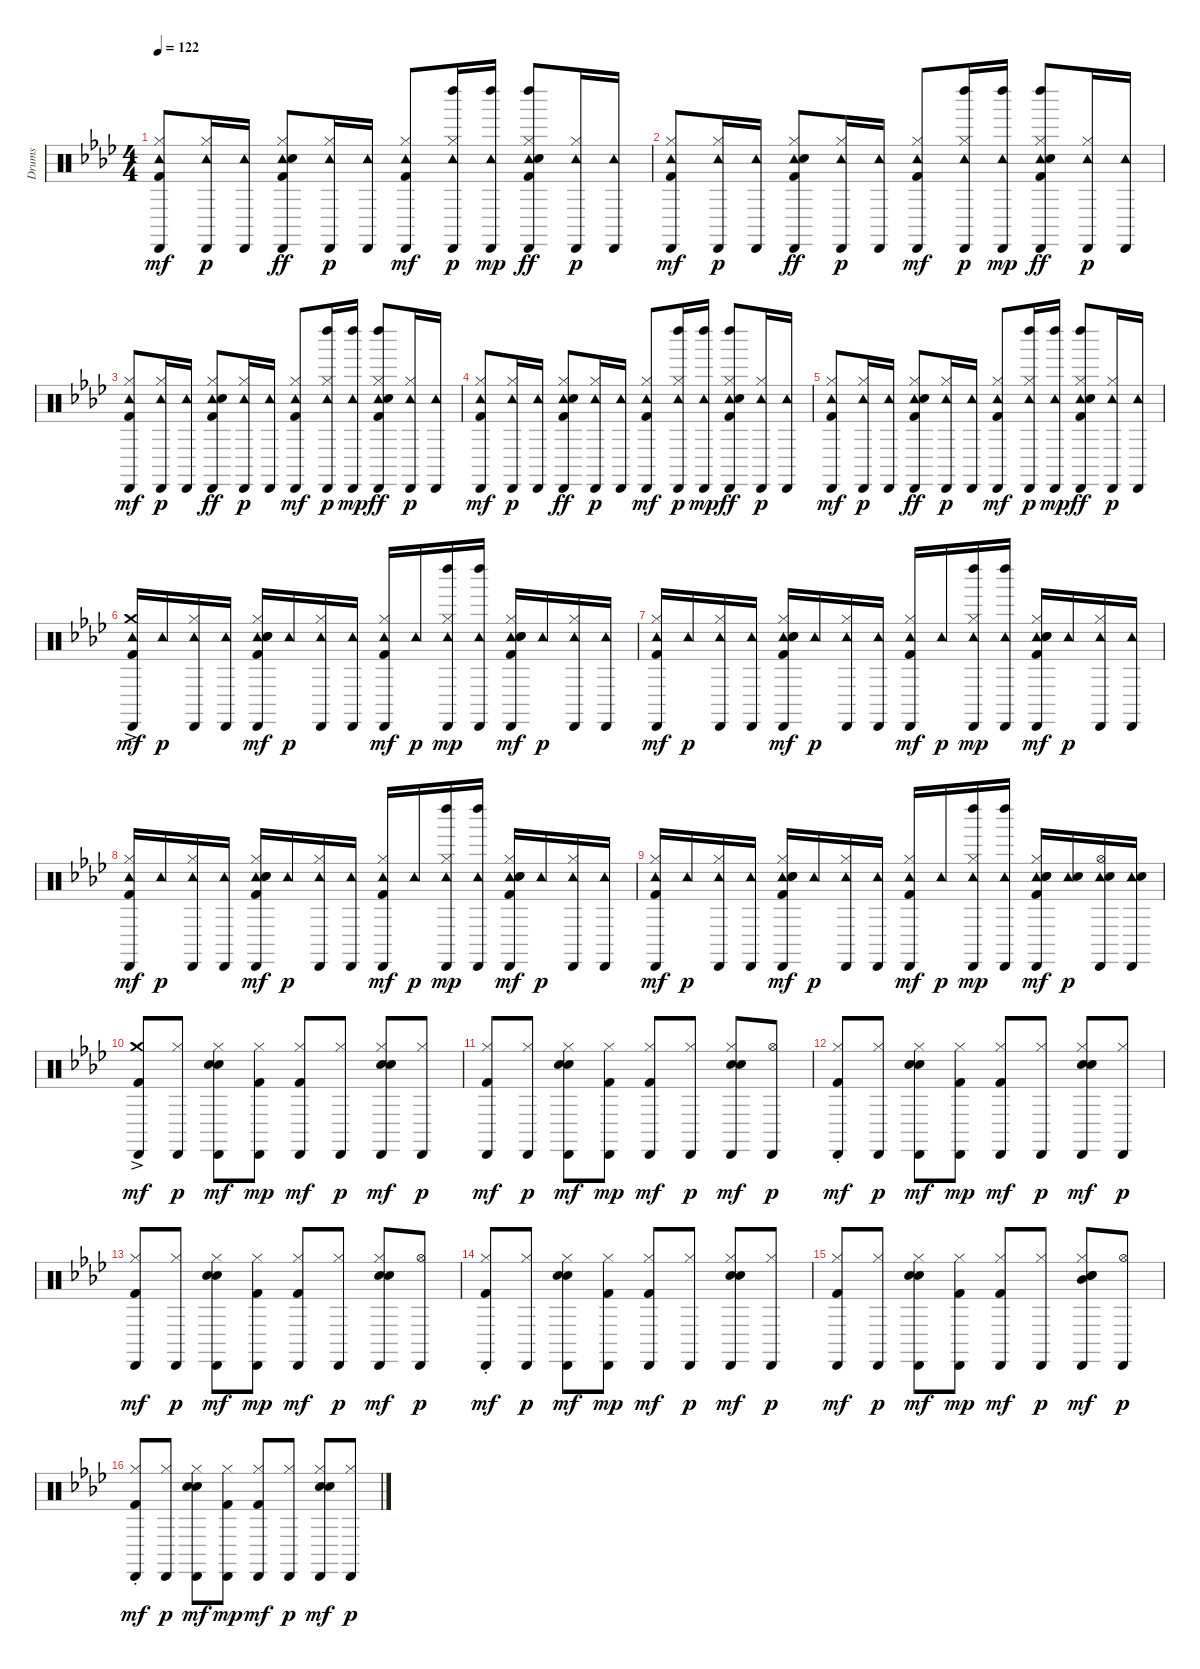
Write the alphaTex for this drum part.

\track ("Drums" "Drums") {instrument percussion}
\staff {score}
\articulation defaults
\ts (4 4)
\tempo 122
\clef neutral
\ks ab
("Hi-Hat (closed)" "Cabasa (hit)" "Tambourine (hit)" "Kick (hit) 2").8{dy mf} ("Hi-Hat (closed)" "Cabasa (hit)" "Tambourine (hit)").16{dy p} ("Cabasa (hit)" "Tambourine (hit)").16 ("Hi-Hat (closed)" "Cabasa (hit)" "Tambourine (hit)" "Hand Clap (hit)" "Kick (hit) 2").8{dy ff} ("Hi-Hat (closed)" "Cabasa (hit)" "Tambourine (hit)").16{dy p} ("Cabasa (hit)" "Tambourine (hit)").16 ("Hi-Hat (closed)" "Cabasa (hit)" "Tambourine (hit)" "Kick (hit) 2").8{dy mf} ("Hi-Hat (closed)" "Cabasa (hit)" "Tambourine (hit)" "Left Maraca (hit)").16{dy p} ("Cabasa (hit)" "Tambourine (hit)" "Left Maraca (hit)").16{dy mp} ("Hi-Hat (closed)" "Cabasa (hit)" "Tambourine (hit)" "Left Maraca (hit)" "Hand Clap (hit)" "Kick (hit) 2").8{dy ff} ("Hi-Hat (closed)" "Cabasa (hit)" "Tambourine (hit)").16{dy p} ("Cabasa (hit)" "Tambourine (hit)").16 |
("Hi-Hat (closed)" "Cabasa (hit)" "Tambourine (hit)" "Kick (hit) 2").8{dy mf} ("Hi-Hat (closed)" "Cabasa (hit)" "Tambourine (hit)").16{dy p} ("Cabasa (hit)" "Tambourine (hit)").16 ("Hi-Hat (closed)" "Cabasa (hit)" "Tambourine (hit)" "Hand Clap (hit)" "Kick (hit) 2").8{dy ff} ("Hi-Hat (closed)" "Cabasa (hit)" "Tambourine (hit)").16{dy p} ("Cabasa (hit)" "Tambourine (hit)").16 ("Hi-Hat (closed)" "Cabasa (hit)" "Tambourine (hit)" "Kick (hit) 2").8{dy mf} ("Hi-Hat (closed)" "Cabasa (hit)" "Tambourine (hit)" "Left Maraca (hit)").16{dy p} ("Cabasa (hit)" "Tambourine (hit)" "Left Maraca (hit)").16{dy mp} ("Hi-Hat (closed)" "Cabasa (hit)" "Tambourine (hit)" "Left Maraca (hit)" "Hand Clap (hit)" "Kick (hit) 2").8{dy ff} ("Hi-Hat (closed)" "Cabasa (hit)" "Tambourine (hit)").16{dy p} ("Cabasa (hit)" "Tambourine (hit)").16 |
("Hi-Hat (closed)" "Cabasa (hit)" "Tambourine (hit)" "Kick (hit) 2").8{dy mf} ("Hi-Hat (closed)" "Cabasa (hit)" "Tambourine (hit)").16{dy p} ("Cabasa (hit)" "Tambourine (hit)").16 ("Hi-Hat (closed)" "Cabasa (hit)" "Tambourine (hit)" "Hand Clap (hit)" "Kick (hit) 2").8{dy ff} ("Hi-Hat (closed)" "Cabasa (hit)" "Tambourine (hit)").16{dy p} ("Cabasa (hit)" "Tambourine (hit)").16 ("Hi-Hat (closed)" "Cabasa (hit)" "Tambourine (hit)" "Kick (hit) 2").8{dy mf} ("Hi-Hat (closed)" "Cabasa (hit)" "Tambourine (hit)" "Left Maraca (hit)").16{dy p} ("Cabasa (hit)" "Tambourine (hit)" "Left Maraca (hit)").16{dy mp} ("Hi-Hat (closed)" "Cabasa (hit)" "Tambourine (hit)" "Left Maraca (hit)" "Hand Clap (hit)" "Kick (hit) 2").8{dy ff} ("Hi-Hat (closed)" "Cabasa (hit)" "Tambourine (hit)").16{dy p} ("Cabasa (hit)" "Tambourine (hit)").16 |
("Hi-Hat (closed)" "Cabasa (hit)" "Tambourine (hit)" "Kick (hit) 2").8{dy mf} ("Hi-Hat (closed)" "Cabasa (hit)" "Tambourine (hit)").16{dy p} ("Cabasa (hit)" "Tambourine (hit)").16 ("Hi-Hat (closed)" "Cabasa (hit)" "Tambourine (hit)" "Hand Clap (hit)" "Kick (hit) 2").8{dy ff} ("Hi-Hat (closed)" "Cabasa (hit)" "Tambourine (hit)").16{dy p} ("Cabasa (hit)" "Tambourine (hit)").16 ("Hi-Hat (closed)" "Cabasa (hit)" "Tambourine (hit)" "Kick (hit) 2").8{dy mf} ("Hi-Hat (closed)" "Cabasa (hit)" "Tambourine (hit)" "Left Maraca (hit)").16{dy p} ("Cabasa (hit)" "Tambourine (hit)" "Left Maraca (hit)").16{dy mp} ("Hi-Hat (closed)" "Cabasa (hit)" "Tambourine (hit)" "Left Maraca (hit)" "Hand Clap (hit)" "Kick (hit) 2").8{dy ff} ("Hi-Hat (closed)" "Cabasa (hit)" "Tambourine (hit)").16{dy p} ("Cabasa (hit)" "Tambourine (hit)").16 |
("Hi-Hat (closed)" "Cabasa (hit)" "Tambourine (hit)" "Kick (hit) 2").8{dy mf} ("Hi-Hat (closed)" "Cabasa (hit)" "Tambourine (hit)").16{dy p} ("Cabasa (hit)" "Tambourine (hit)").16 ("Hi-Hat (closed)" "Cabasa (hit)" "Tambourine (hit)" "Hand Clap (hit)" "Kick (hit) 2").8{dy ff} ("Hi-Hat (closed)" "Cabasa (hit)" "Tambourine (hit)").16{dy p} ("Cabasa (hit)" "Tambourine (hit)").16 ("Hi-Hat (closed)" "Cabasa (hit)" "Tambourine (hit)" "Kick (hit) 2").8{dy mf} ("Hi-Hat (closed)" "Cabasa (hit)" "Tambourine (hit)" "Left Maraca (hit)").16{dy p} ("Cabasa (hit)" "Tambourine (hit)" "Left Maraca (hit)").16{dy mp} ("Hi-Hat (closed)" "Cabasa (hit)" "Tambourine (hit)" "Left Maraca (hit)" "Hand Clap (hit)" "Kick (hit) 2").8{dy ff} ("Hi-Hat (closed)" "Cabasa (hit)" "Tambourine (hit)").16{dy p} ("Cabasa (hit)" "Tambourine (hit)").16 |
("Crash medium (hit)"{ac} "Cabasa (hit)" "Tambourine (hit)" "Kick (hit) 2").16{dy mf} "Tambourine (hit)".16{dy p} ("Hi-Hat (closed)" "Cabasa (hit)" "Tambourine (hit)").16 ("Cabasa (hit)" "Tambourine (hit)").16 ("Hi-Hat (closed)" "Cabasa (hit)" "Tambourine (hit)" "Hand Clap (hit)" "Electric Snare (hit)" "Kick (hit) 2").16{dy mf} "Tambourine (hit)".16{dy p} ("Hi-Hat (closed)" "Cabasa (hit)" "Tambourine (hit)").16 ("Cabasa (hit)" "Tambourine (hit)").16 ("Hi-Hat (closed)" "Cabasa (hit)" "Tambourine (hit)" "Kick (hit) 2").16{dy mf} "Tambourine (hit)".16{dy p} ("Hi-Hat (closed)" "Cabasa (hit)" "Tambourine (hit)" "Left Maraca (hit)").16{dy mp} ("Cabasa (hit)" "Tambourine (hit)" "Left Maraca (hit)").16 ("Hi-Hat (closed)" "Cabasa (hit)" "Tambourine (hit)" "Hand Clap (hit)" "Electric Snare (hit)" "Kick (hit) 2").16{dy mf} "Tambourine (hit)".16{dy p} ("Hi-Hat (closed)" "Cabasa (hit)" "Tambourine (hit)").16 ("Cabasa (hit)" "Tambourine (hit)").16 |
("Hi-Hat (closed)" "Cabasa (hit)" "Tambourine (hit)" "Kick (hit) 2").16{dy mf} "Tambourine (hit)".16{dy p} ("Hi-Hat (closed)" "Cabasa (hit)" "Tambourine (hit)").16 ("Cabasa (hit)" "Tambourine (hit)").16 ("Hi-Hat (closed)" "Cabasa (hit)" "Tambourine (hit)" "Hand Clap (hit)" "Electric Snare (hit)" "Kick (hit) 2").16{dy mf} "Tambourine (hit)".16{dy p} ("Hi-Hat (closed)" "Cabasa (hit)" "Tambourine (hit)").16 ("Cabasa (hit)" "Tambourine (hit)").16 ("Hi-Hat (closed)" "Cabasa (hit)" "Tambourine (hit)" "Kick (hit) 2").16{dy mf} "Tambourine (hit)".16{dy p} ("Hi-Hat (closed)" "Cabasa (hit)" "Tambourine (hit)" "Left Maraca (hit)").16{dy mp} ("Cabasa (hit)" "Tambourine (hit)" "Left Maraca (hit)").16 ("Hi-Hat (closed)" "Cabasa (hit)" "Tambourine (hit)" "Hand Clap (hit)" "Electric Snare (hit)" "Kick (hit) 2").16{dy mf} "Tambourine (hit)".16{dy p} ("Hi-Hat (closed)" "Cabasa (hit)" "Tambourine (hit)").16 ("Cabasa (hit)" "Tambourine (hit)").16 |
("Hi-Hat (closed)" "Cabasa (hit)" "Tambourine (hit)" "Kick (hit) 2").16{dy mf} "Tambourine (hit)".16{dy p} ("Hi-Hat (closed)" "Cabasa (hit)" "Tambourine (hit)").16 ("Cabasa (hit)" "Tambourine (hit)").16 ("Hi-Hat (closed)" "Cabasa (hit)" "Tambourine (hit)" "Hand Clap (hit)" "Electric Snare (hit)" "Kick (hit) 2").16{dy mf} "Tambourine (hit)".16{dy p} ("Hi-Hat (closed)" "Cabasa (hit)" "Tambourine (hit)").16 ("Cabasa (hit)" "Tambourine (hit)").16 ("Hi-Hat (closed)" "Cabasa (hit)" "Tambourine (hit)" "Kick (hit) 2").16{dy mf} "Tambourine (hit)".16{dy p} ("Hi-Hat (closed)" "Cabasa (hit)" "Tambourine (hit)" "Left Maraca (hit)").16{dy mp} ("Cabasa (hit)" "Tambourine (hit)" "Left Maraca (hit)").16 ("Hi-Hat (closed)" "Cabasa (hit)" "Tambourine (hit)" "Hand Clap (hit)" "Electric Snare (hit)" "Kick (hit) 2").16{dy mf} "Tambourine (hit)".16{dy p} ("Hi-Hat (closed)" "Cabasa (hit)" "Tambourine (hit)").16 ("Cabasa (hit)" "Tambourine (hit)").16 |
("Hi-Hat (closed)" "Cabasa (hit)" "Tambourine (hit)" "Kick (hit) 2").16{dy mf} "Tambourine (hit)".16{dy p} ("Hi-Hat (closed)" "Cabasa (hit)" "Tambourine (hit)").16 ("Cabasa (hit)" "Tambourine (hit)").16 ("Hi-Hat (closed)" "Cabasa (hit)" "Tambourine (hit)" "Hand Clap (hit)" "Electric Snare (hit)" "Kick (hit) 2").16{dy mf} "Tambourine (hit)".16{dy p} ("Hi-Hat (closed)" "Cabasa (hit)" "Tambourine (hit)").16 ("Cabasa (hit)" "Tambourine (hit)").16 ("Hi-Hat (closed)" "Cabasa (hit)" "Tambourine (hit)" "Kick (hit) 2").16{dy mf} "Tambourine (hit)".16{dy p} ("Hi-Hat (closed)" "Cabasa (hit)" "Tambourine (hit)" "Left Maraca (hit)").16{dy mp} ("Cabasa (hit)" "Tambourine (hit)" "Left Maraca (hit)").16 ("Hi-Hat (closed)" "Cabasa (hit)" "Tambourine (hit)" "Hand Clap (hit)" "Electric Snare (hit)" "Kick (hit) 2").16{dy mf} ("Tambourine (hit)" "Electric Snare (hit)").16{dy p} ("Hi-Hat (open)" "Cabasa (hit)" "Tambourine (hit)" "Electric Snare (hit)").16 ("Cabasa (hit)" "Tambourine (hit)" "Electric Snare (hit)").16 |
("Crash medium (hit)"{ac} "Cabasa (hit)" "Kick (hit) 2").8{dy mf} ("Hi-Hat (closed)" "Cabasa (hit)").8{dy p} ("Hi-Hat (closed)" "Cabasa (hit)" "Hand Clap (hit)" "Electric Snare (hit)").8{dy mf} ("Hi-Hat (closed)" "Cabasa (hit)" "Kick (hit) 2").8{dy mp} ("Hi-Hat (closed)" "Cabasa (hit)" "Kick (hit) 2").8{dy mf} ("Hi-Hat (closed)" "Cabasa (hit)").8{dy p} ("Hi-Hat (closed)" "Cabasa (hit)" "Hand Clap (hit)" "Electric Snare (hit)").8{dy mf} ("Hi-Hat (closed)" "Cabasa (hit)").8{dy p} |
("Hi-Hat (closed)" "Cabasa (hit)" "Kick (hit) 2").8{dy mf} ("Hi-Hat (closed)" "Cabasa (hit)").8{dy p} ("Hi-Hat (closed)" "Cabasa (hit)" "Hand Clap (hit)" "Electric Snare (hit)").8{dy mf} ("Hi-Hat (closed)" "Cabasa (hit)" "Kick (hit) 2").8{dy mp} ("Hi-Hat (closed)" "Cabasa (hit)" "Kick (hit) 2").8{dy mf} ("Hi-Hat (closed)" "Cabasa (hit)").8{dy p} ("Hi-Hat (closed)" "Cabasa (hit)" "Hand Clap (hit)" "Electric Snare (hit)").8{dy mf} ("Hi-Hat (open)" "Cabasa (hit)").8{dy p} |
("Hi-Hat (closed)"{st} "Cabasa (hit)" "Kick (hit) 2").8{dy mf} ("Hi-Hat (closed)" "Cabasa (hit)").8{dy p} ("Hi-Hat (closed)" "Cabasa (hit)" "Hand Clap (hit)" "Electric Snare (hit)").8{dy mf} ("Hi-Hat (closed)" "Cabasa (hit)" "Kick (hit) 2").8{dy mp} ("Hi-Hat (closed)" "Cabasa (hit)" "Kick (hit) 2").8{dy mf} ("Hi-Hat (closed)" "Cabasa (hit)").8{dy p} ("Hi-Hat (closed)" "Cabasa (hit)" "Hand Clap (hit)" "Electric Snare (hit)").8{dy mf} ("Hi-Hat (closed)" "Cabasa (hit)").8{dy p} |
("Hi-Hat (closed)" "Cabasa (hit)" "Kick (hit) 2").8{dy mf} ("Hi-Hat (closed)" "Cabasa (hit)").8{dy p} ("Hi-Hat (closed)" "Cabasa (hit)" "Hand Clap (hit)" "Electric Snare (hit)").8{dy mf} ("Hi-Hat (closed)" "Cabasa (hit)" "Kick (hit) 2").8{dy mp} ("Hi-Hat (closed)" "Cabasa (hit)" "Kick (hit) 2").8{dy mf} ("Hi-Hat (closed)" "Cabasa (hit)").8{dy p} ("Hi-Hat (closed)" "Cabasa (hit)" "Hand Clap (hit)" "Electric Snare (hit)").8{dy mf} ("Hi-Hat (open)" "Cabasa (hit)").8{dy p} |
("Hi-Hat (closed)"{st} "Cabasa (hit)" "Kick (hit) 2").8{dy mf} ("Hi-Hat (closed)" "Cabasa (hit)").8{dy p} ("Hi-Hat (closed)" "Cabasa (hit)" "Hand Clap (hit)" "Electric Snare (hit)").8{dy mf} ("Hi-Hat (closed)" "Cabasa (hit)" "Kick (hit) 2").8{dy mp} ("Hi-Hat (closed)" "Cabasa (hit)" "Kick (hit) 2").8{dy mf} ("Hi-Hat (closed)" "Cabasa (hit)").8{dy p} ("Hi-Hat (closed)" "Cabasa (hit)" "Hand Clap (hit)" "Electric Snare (hit)").8{dy mf} ("Hi-Hat (closed)" "Cabasa (hit)").8{dy p} |
("Hi-Hat (closed)" "Cabasa (hit)" "Kick (hit) 2").8{dy mf} ("Hi-Hat (closed)" "Cabasa (hit)").8{dy p} ("Hi-Hat (closed)" "Cabasa (hit)" "Hand Clap (hit)" "Electric Snare (hit)").8{dy mf} ("Hi-Hat (closed)" "Cabasa (hit)" "Kick (hit) 2").8{dy mp} ("Hi-Hat (closed)" "Cabasa (hit)" "Kick (hit) 2").8{dy mf} ("Hi-Hat (closed)" "Cabasa (hit)").8{dy p} ("Hi-Hat (closed)" "Cabasa (hit)" "Hand Clap (hit)" "Mid Tom (hit)" "Electric Snare (hit)").8{dy mf} ("Hi-Hat (open)" "Cabasa (hit)").8{dy p} |
("Hi-Hat (closed)"{st} "Cabasa (hit)" "Kick (hit) 2").8{dy mf} ("Hi-Hat (closed)" "Cabasa (hit)").8{dy p} ("Hi-Hat (closed)" "Cabasa (hit)" "Hand Clap (hit)" "Electric Snare (hit)").8{dy mf} ("Hi-Hat (closed)" "Cabasa (hit)" "Kick (hit) 2").8{dy mp} ("Hi-Hat (closed)" "Cabasa (hit)" "Kick (hit) 2").8{dy mf} ("Hi-Hat (closed)" "Cabasa (hit)").8{dy p} ("Hi-Hat (closed)" "Cabasa (hit)" "Hand Clap (hit)" "Electric Snare (hit)").8{dy mf} ("Hi-Hat (closed)" "Cabasa (hit)").8{dy p}
